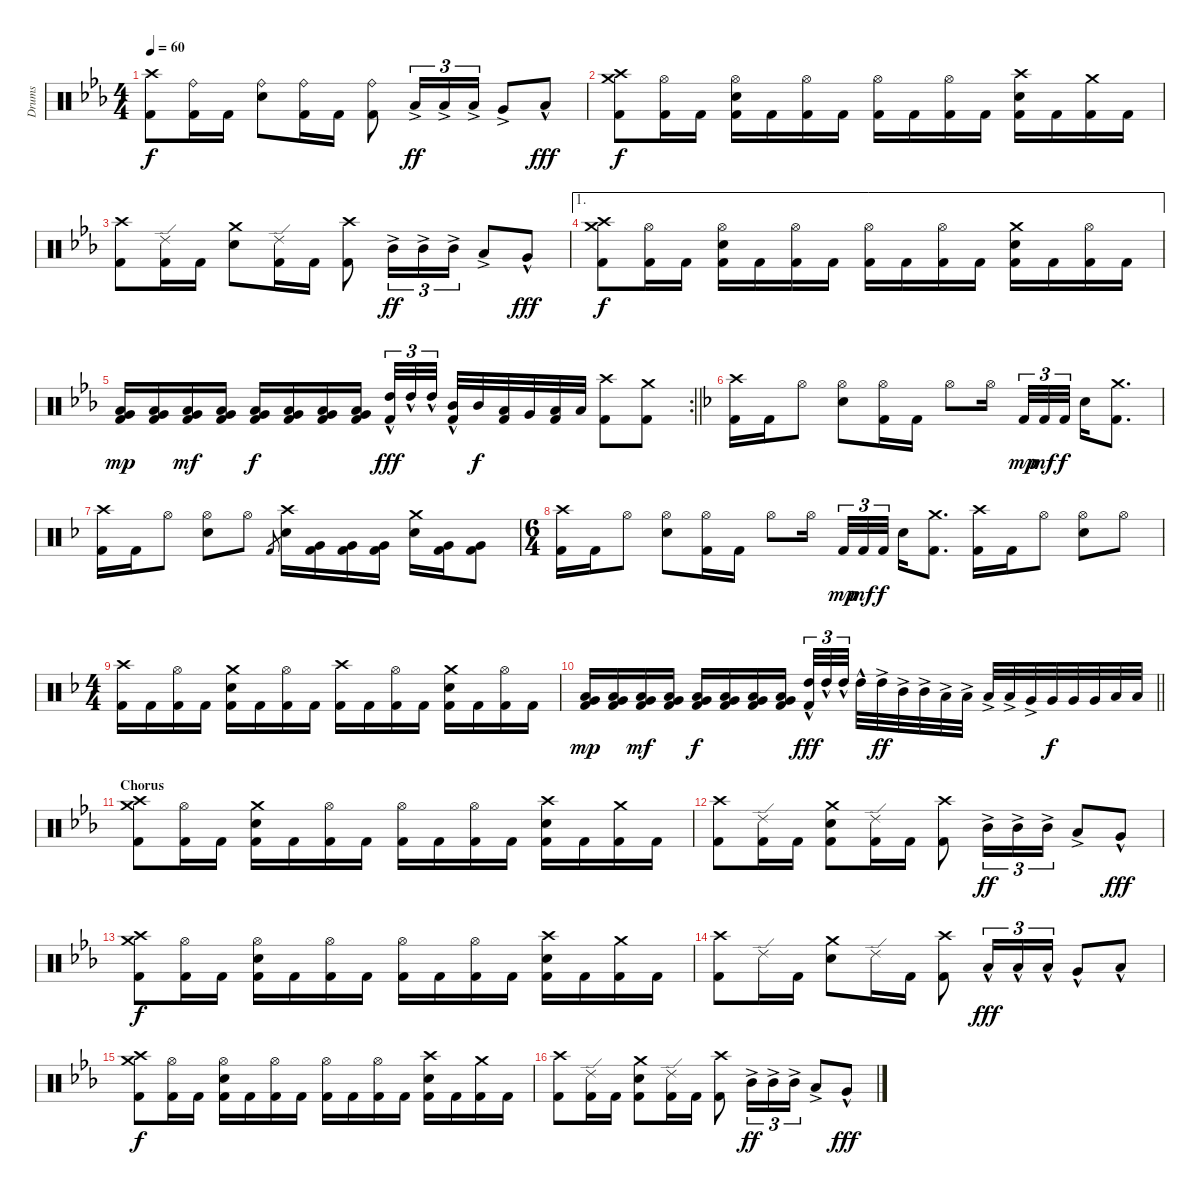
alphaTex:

\track ("Drums" "Drums") {instrument percussion}
\staff {score}
\articulation defaults
\ts (4 4)
\tempo 60
\clef neutral
\ks cminor
("Crash high (hit)" "Kick (hit) 2").8{dy f} ("Ride (bell)" "Kick (hit) 2").16 "Kick (hit) 2".16 ("Ride (bell)" "Snare (hit) 2").8 ("Ride (bell)" "Kick (hit) 2").16 "Kick (hit) 2".16 ("Ride (bell)" "Kick (hit) 2").8 "Low Tom (hit)"{ac}.16{tu (3 2) dy ff} "Low Tom (hit)"{ac}.16{tu (3 2)} "Low Tom (hit)"{ac}.16{tu (3 2)} "Very Low Tom (hit)"{ac}.8 "Low Floor Tom (hit)"{hac}.8{dy fff} |
("Crash high (hit)" "Crash medium (hit)" "Kick (hit) 2").8{dy f} ("Hi-Hat (open)" "Kick (hit) 2").16 "Kick (hit) 2".16 ("Hi-Hat (open)" "Snare (hit) 2" "Kick (hit) 2").16 "Kick (hit) 2".16 ("Hi-Hat (open)" "Kick (hit) 2").16 "Kick (hit) 2".16 ("Hi-Hat (open)" "Kick (hit) 2").16 "Kick (hit) 2".16 ("Hi-Hat (open)" "Kick (hit) 2").16 "Kick (hit) 2".16 ("Crash high (hit)" "Snare (hit) 2" "Kick (hit) 2").16 "Kick (hit) 2".16 ("Crash medium (hit)" "Kick (hit) 2").16 "Kick (hit) 2".16 |
("Crash high (hit)" "Kick (hit) 2").8 ("Ride (edge) 2" "Kick (hit) 2").16 "Kick (hit) 2".16 ("Crash medium (hit)" "Snare (hit) 2").8 ("Ride (edge) 2" "Kick (hit) 2").16 "Kick (hit) 2".16 ("Crash high (hit)" "Kick (hit) 2").8 "Mid Tom (hit)"{ac}.16{tu (3 2) dy ff} "Mid Tom (hit)"{ac}.16{tu (3 2)} "Mid Tom (hit)"{ac}.16{tu (3 2)} "Low Tom (hit)"{ac}.8 "Very Low Tom (hit)"{hac}.8{dy fff} |
\ae 1
("Crash high (hit)" "Crash medium (hit)" "Kick (hit) 2").8{dy f} ("Hi-Hat (open)" "Kick (hit) 2").16 "Kick (hit) 2".16 ("Hi-Hat (open)" "Snare (hit) 2" "Kick (hit) 2").16 "Kick (hit) 2".16 ("Hi-Hat (open)" "Kick (hit) 2").16 "Kick (hit) 2".16 ("Hi-Hat (open)" "Kick (hit) 2").16 "Kick (hit) 2".16 ("Hi-Hat (open)" "Kick (hit) 2").16 "Kick (hit) 2".16 ("Crash medium (hit)" "Snare (hit) 2" "Kick (hit) 2").16 "Kick (hit) 2".16 ("Hi-Hat (open)" "Kick (hit) 2").16 "Kick (hit) 2".16 |
\rc 2
\barLineRight lightlight
("Very Low Tom (hit)" "Low Floor Tom (hit)" "Kick (hit) 2").16{dy mp} ("Very Low Tom (hit)" "Low Floor Tom (hit)" "Kick (hit) 2").16 ("Very Low Tom (hit)" "Low Floor Tom (hit)" "Kick (hit) 2").16{dy mf} ("Very Low Tom (hit)" "Low Floor Tom (hit)" "Kick (hit) 2").16 ("Very Low Tom (hit)" "Low Floor Tom (hit)" "Kick (hit) 2").16{dy f} ("Very Low Tom (hit)" "Low Floor Tom (hit)" "Kick (hit) 2").16 ("Very Low Tom (hit)" "Low Floor Tom (hit)" "Kick (hit) 2").16 ("Very Low Tom (hit)" "Low Floor Tom (hit)" "Kick (hit) 2").16 ("High Tom (hit)"{hac} "Kick (hit) 2").32{tu (3 2) dy fff} "High Tom (hit)"{hac}.32{tu (3 2)} "High Tom (hit)"{hac}.32{tu (3 2) beam splitsecondary} ("Mid Tom (hit)"{hac} "Kick (hit) 2").32 "Mid Tom (hit)".32{dy f} ("Low Tom (hit)" "Kick (hit) 2").32 "Very Low Tom (hit)".32 ("Low Floor Tom (hit)" "Kick (hit) 2").32 "Low Floor Tom (hit)".32 ("Crash high (hit)" "Kick (hit) 2").8 ("Crash medium (hit)" "Kick (hit) 2").8 |
\section ("" "")
\ks dminor
("Crash high (hit)" "Kick (hit) 2").16 "Kick (hit) 2".16 "Hi-Hat (open)".8 ("Hi-Hat (open)" "Snare (hit) 2").8 ("Hi-Hat (open)" "Kick (hit) 2").16 "Kick (hit) 2".16 "Hi-Hat (open)".8 "Hi-Hat (open)".16{beam splitsecondary} "Kick (hit) 2".32{tu (3 2) dy mp} "Kick (hit) 2".32{tu (3 2) dy mf} "Kick (hit) 2".32{tu (3 2) dy f} "Snare (hit) 2".16 ("Crash medium (hit)" "Kick (hit) 2").8{d} |
("Crash high (hit)" "Kick (hit) 2").16 "Kick (hit) 2".16 "Hi-Hat (open)".8 ("Hi-Hat (open)" "Snare (hit) 2").8 "Hi-Hat (open)".8 "Kick (hit) 2".8{gr} ("Crash high (hit)" "Snare (hit) 2").16 ("Very Low Tom (hit)" "Kick (hit) 2").16 ("Very Low Tom (hit)" "Kick (hit) 2").16 ("Very Low Tom (hit)" "Kick (hit) 2").16 ("Crash medium (hit)" "Snare (hit) 2").16 ("Very Low Tom (hit)" "Kick (hit) 2").16 ("Very Low Tom (hit)" "Kick (hit) 2").8 |
\ts (6 4)
("Crash high (hit)" "Kick (hit) 2").16 "Kick (hit) 2".16 "Hi-Hat (open)".8 ("Hi-Hat (open)" "Snare (hit) 2").8 ("Hi-Hat (open)" "Kick (hit) 2").16 "Kick (hit) 2".16 "Hi-Hat (open)".8 "Hi-Hat (open)".16{beam splitsecondary} "Kick (hit) 2".32{tu (3 2) dy mp} "Kick (hit) 2".32{tu (3 2) dy mf} "Kick (hit) 2".32{tu (3 2) dy f} "Snare (hit) 2".16 ("Crash medium (hit)" "Kick (hit) 2").8{d} ("Crash high (hit)" "Kick (hit) 2").16 "Kick (hit) 2".16 "Hi-Hat (open)".8 ("Hi-Hat (open)" "Snare (hit) 2").8 "Hi-Hat (open)".8 |
\ts (4 4)
("Crash high (hit)" "Kick (hit) 2").16 "Kick (hit) 2".16 ("Hi-Hat (open)" "Kick (hit) 2").16 "Kick (hit) 2".16 ("Crash medium (hit)" "Snare (hit) 2" "Kick (hit) 2").16 "Kick (hit) 2".16 ("Hi-Hat (open)" "Kick (hit) 2").16 "Kick (hit) 2".16 ("Crash high (hit)" "Kick (hit) 2").16 "Kick (hit) 2".16 ("Hi-Hat (open)" "Kick (hit) 2").16 "Kick (hit) 2".16 ("Crash medium (hit)" "Snare (hit) 2" "Kick (hit) 2").16 "Kick (hit) 2".16 ("Hi-Hat (open)" "Kick (hit) 2").16 "Kick (hit) 2".16 |
\barLineRight lightlight
("Very Low Tom (hit)" "Low Floor Tom (hit)" "Kick (hit) 2").16{dy mp} ("Very Low Tom (hit)" "Low Floor Tom (hit)" "Kick (hit) 2").16 ("Very Low Tom (hit)" "Low Floor Tom (hit)" "Kick (hit) 2").16{dy mf} ("Very Low Tom (hit)" "Low Floor Tom (hit)" "Kick (hit) 2").16 ("Very Low Tom (hit)" "Low Floor Tom (hit)" "Kick (hit) 2").16{dy f} ("Very Low Tom (hit)" "Low Floor Tom (hit)" "Kick (hit) 2").16 ("Very Low Tom (hit)" "Low Floor Tom (hit)" "Kick (hit) 2").16 ("Very Low Tom (hit)" "Low Floor Tom (hit)" "Kick (hit) 2").16 ("High Tom (hit)"{hac} "Kick (hit) 2").32{tu (3 2) dy fff} "High Tom (hit)"{hac}.32{tu (3 2)} "High Tom (hit)"{hac}.32{tu (3 2) beam splitsecondary} "High Tom (hit)"{hac}.32 "High Tom (hit)"{ac}.32{dy ff} "Mid Tom (hit)"{ac}.32 "Mid Tom (hit)"{ac}.32 "Low Tom (hit)"{ac}.32 "Low Tom (hit)"{ac}.32 "Low Tom (hit)"{ac}.32 "Low Tom (hit)"{ac}.32 "Very Low Tom (hit)"{ac}.32 "Very Low Tom (hit)".32{dy f} "Very Low Tom (hit)".32 "Very Low Tom (hit)".32 "Low Floor Tom (hit)".32 "Low Floor Tom (hit)".32 |
\section ("" "Chorus")
\ks cminor
("Crash high (hit)" "Crash medium (hit)" "Kick (hit) 2").8 ("Hi-Hat (open)" "Kick (hit) 2").16 "Kick (hit) 2".16 ("Crash medium (hit)" "Snare (hit) 2" "Kick (hit) 2").16 "Kick (hit) 2".16 ("Hi-Hat (open)" "Kick (hit) 2").16 "Kick (hit) 2".16 ("Hi-Hat (open)" "Kick (hit) 2").16 "Kick (hit) 2".16 ("Hi-Hat (open)" "Kick (hit) 2").16 "Kick (hit) 2".16 ("Crash high (hit)" "Snare (hit) 2" "Kick (hit) 2").16 "Kick (hit) 2".16 ("Crash medium (hit)" "Kick (hit) 2").16 "Kick (hit) 2".16 |
("Crash high (hit)" "Kick (hit) 2").8 ("Ride (edge) 2" "Kick (hit) 2").16 "Kick (hit) 2".16 ("Crash medium (hit)" "Snare (hit) 2" "Kick (hit) 2").8 ("Ride (edge) 2" "Kick (hit) 2").16 "Kick (hit) 2".16 ("Crash high (hit)" "Kick (hit) 2").8 "Mid Tom (hit)"{ac}.16{tu (3 2) dy ff} "Mid Tom (hit)"{ac}.16{tu (3 2)} "Mid Tom (hit)"{ac}.16{tu (3 2)} "Low Tom (hit)"{ac}.8 "Very Low Tom (hit)"{hac}.8{dy fff} |
("Crash high (hit)" "Crash medium (hit)" "Kick (hit) 2").8{dy f} ("Hi-Hat (open)" "Kick (hit) 2").16 "Kick (hit) 2".16 ("Hi-Hat (open)" "Snare (hit) 2" "Kick (hit) 2").16 "Kick (hit) 2".16 ("Hi-Hat (open)" "Kick (hit) 2").16 "Kick (hit) 2".16 ("Hi-Hat (open)" "Kick (hit) 2").16 "Kick (hit) 2".16 ("Hi-Hat (open)" "Kick (hit) 2").16 "Kick (hit) 2".16 ("Crash high (hit)" "Snare (hit) 2" "Kick (hit) 2").16 "Kick (hit) 2".16 ("Crash medium (hit)" "Kick (hit) 2").16 "Kick (hit) 2".16 |
("Crash high (hit)" "Kick (hit) 2").8 "Ride (edge) 2".16 "Kick (hit) 2".16 ("Crash medium (hit)" "Snare (hit) 2").8 "Ride (edge) 2".16 "Kick (hit) 2".16 ("Crash high (hit)" "Kick (hit) 2").8 "Low Tom (hit)"{hac}.16{tu (3 2) dy fff} "Low Tom (hit)"{hac}.16{tu (3 2)} "Low Tom (hit)"{hac}.16{tu (3 2)} "Very Low Tom (hit)"{hac}.8 "Low Floor Tom (hit)"{hac}.8 |
("Crash high (hit)" "Crash medium (hit)" "Kick (hit) 2").8{dy f} ("Hi-Hat (open)" "Kick (hit) 2").16 "Kick (hit) 2".16 ("Hi-Hat (open)" "Snare (hit) 2" "Kick (hit) 2").16 "Kick (hit) 2".16 ("Hi-Hat (open)" "Kick (hit) 2").16 "Kick (hit) 2".16 ("Hi-Hat (open)" "Kick (hit) 2").16 "Kick (hit) 2".16 ("Hi-Hat (open)" "Kick (hit) 2").16 "Kick (hit) 2".16 ("Crash high (hit)" "Snare (hit) 2" "Kick (hit) 2").16 "Kick (hit) 2".16 ("Crash medium (hit)" "Kick (hit) 2").16 "Kick (hit) 2".16 |
("Crash high (hit)" "Kick (hit) 2").8 ("Ride (edge) 2" "Kick (hit) 2").16 "Kick (hit) 2".16 ("Crash medium (hit)" "Snare (hit) 2" "Kick (hit) 2").8 ("Ride (edge) 2" "Kick (hit) 2").16 "Kick (hit) 2".16 ("Crash high (hit)" "Kick (hit) 2").8 "Mid Tom (hit)"{ac}.16{tu (3 2) dy ff} "Mid Tom (hit)"{ac}.16{tu (3 2)} "Mid Tom (hit)"{ac}.16{tu (3 2)} "Low Tom (hit)"{ac}.8 "Very Low Tom (hit)"{hac}.8{dy fff}
